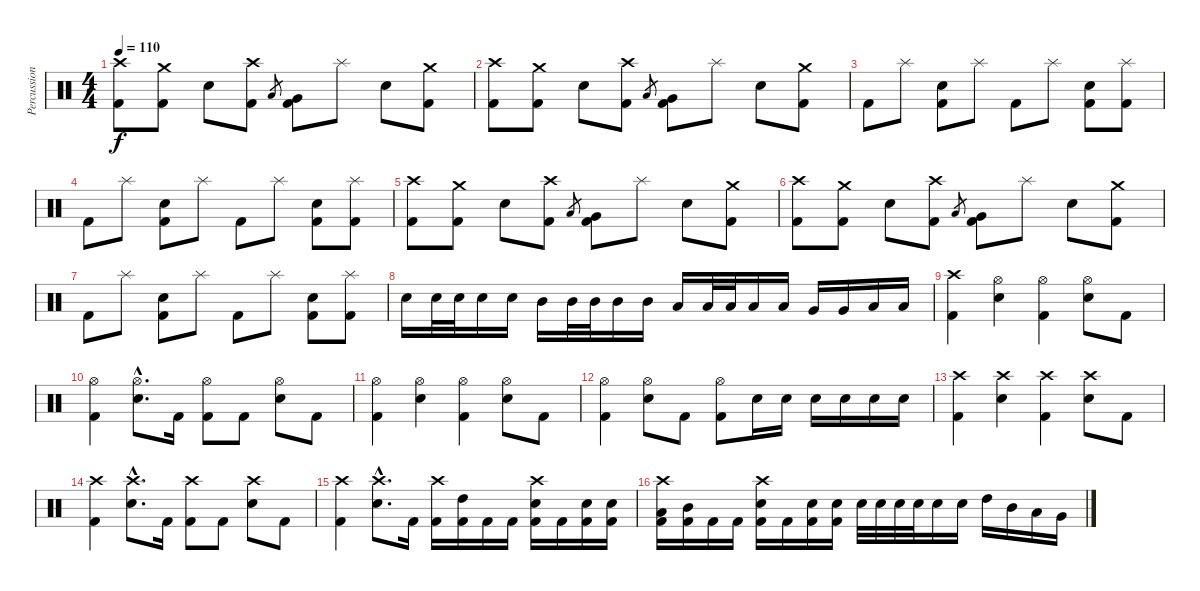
\track ("Percussion" "Percussion") {instrument percussion}
\staff {score}
\articulation defaults
\ts (4 4)
\tempo 110
\clef neutral
\ks c
("Crash high (hit)" "Kick (hit) 2").8{dy f} ("Crash medium (hit)" "Kick (hit) 2").8 "Electric Snare (hit)".8 ("Crash high (hit)" "Kick (hit) 2").8 "Low Tom (hit)".8{gr} ("Very Low Tom (hit)" "Kick (hit) 2").8 "Splash (hit)".8 "Electric Snare (hit)".8 ("Crash medium (hit)" "Kick (hit) 2").8 |
("Crash high (hit)" "Kick (hit) 2").8 ("Crash medium (hit)" "Kick (hit) 2").8 "Electric Snare (hit)".8 ("Crash high (hit)" "Kick (hit) 2").8 "Low Tom (hit)".8{gr} ("Very Low Tom (hit)" "Kick (hit) 2").8 "Splash (hit)".8 "Electric Snare (hit)".8 ("Crash medium (hit)" "Kick (hit) 2").8 |
"Kick (hit) 2".8 "Splash (hit)".8 ("Electric Snare (hit)" "Kick (hit) 2").8 "Splash (hit)".8 "Kick (hit) 2".8 "Splash (hit)".8 ("Electric Snare (hit)" "Kick (hit) 2").8 ("Splash (hit)" "Kick (hit) 2").8 |
"Kick (hit) 2".8 "Splash (hit)".8 ("Electric Snare (hit)" "Kick (hit) 2").8 "Splash (hit)".8 "Kick (hit) 2".8 "Splash (hit)".8 ("Electric Snare (hit)" "Kick (hit) 2").8 ("Splash (hit)" "Kick (hit) 2").8 |
("Crash high (hit)" "Kick (hit) 2").8 ("Crash medium (hit)" "Kick (hit) 2").8 "Electric Snare (hit)".8 ("Crash high (hit)" "Kick (hit) 2").8 "Low Tom (hit)".8{gr} ("Very Low Tom (hit)" "Kick (hit) 2").8 "Splash (hit)".8 "Electric Snare (hit)".8 ("Crash medium (hit)" "Kick (hit) 2").8 |
("Crash high (hit)" "Kick (hit) 2").8 ("Crash medium (hit)" "Kick (hit) 2").8 "Electric Snare (hit)".8 ("Crash high (hit)" "Kick (hit) 2").8 "Low Tom (hit)".8{gr} ("Very Low Tom (hit)" "Kick (hit) 2").8 "Splash (hit)".8 "Electric Snare (hit)".8 ("Crash medium (hit)" "Kick (hit) 2").8 |
"Kick (hit) 2".8 "Splash (hit)".8 ("Electric Snare (hit)" "Kick (hit) 2").8 "Splash (hit)".8 "Kick (hit) 2".8 "Splash (hit)".8 ("Electric Snare (hit)" "Kick (hit) 2").8 ("Splash (hit)" "Kick (hit) 2").8 |
"Electric Snare (hit)".16 "Electric Snare (hit)".32 "Electric Snare (hit)".32 "Electric Snare (hit)".16 "Electric Snare (hit)".16 "Mid Tom (hit)".16 "Mid Tom (hit)".32 "Mid Tom (hit)".32 "Mid Tom (hit)".16 "Mid Tom (hit)".16 "Low Tom (hit)".16 "Low Tom (hit)".32 "Low Tom (hit)".32 "Low Tom (hit)".16 "Low Tom (hit)".16 "Very Low Tom (hit)".16 "Very Low Tom (hit)".16 "Low Floor Tom (hit)".16 "Low Floor Tom (hit)".16 |
("Crash high (hit)" "Kick (hit) 2").4 ("Hi-Hat (open)" "Electric Snare (hit)").4 ("Hi-Hat (open)" "Kick (hit) 2").4 ("Hi-Hat (open)" "Electric Snare (hit)").8 "Kick (hit) 2".8 |
("Hi-Hat (open)" "Kick (hit) 2").4 ("Hi-Hat (open)"{hac} "Electric Snare (hit)"{hac}).8{d} "Kick (hit) 2".16 ("Hi-Hat (open)" "Kick (hit) 2").8 "Kick (hit) 2".8 ("Hi-Hat (open)" "Electric Snare (hit)").8 "Kick (hit) 2".8 |
("Hi-Hat (open)" "Kick (hit) 2").4 ("Hi-Hat (open)" "Electric Snare (hit)").4 ("Hi-Hat (open)" "Kick (hit) 2").4 ("Hi-Hat (open)" "Electric Snare (hit)").8 "Kick (hit) 2".8 |
("Hi-Hat (open)" "Kick (hit) 2").4 ("Hi-Hat (open)" "Electric Snare (hit)").8 "Kick (hit) 2".8 ("Hi-Hat (open)" "Kick (hit) 2").8 "Electric Snare (hit)".16 "Electric Snare (hit)".16 "Electric Snare (hit)".16 "Electric Snare (hit)".16 "Electric Snare (hit)".16 "Electric Snare (hit)".16 |
("Crash high (hit)" "Kick (hit) 2").4 ("Crash high (hit)" "Electric Snare (hit)").4 ("Crash high (hit)" "Kick (hit) 2").4 ("Crash high (hit)" "Electric Snare (hit)").8 "Kick (hit) 2".8 |
("Crash high (hit)" "Kick (hit) 2").4 ("Crash high (hit)"{hac} "Electric Snare (hit)"{hac}).8{d} "Kick (hit) 2".16 ("Crash high (hit)" "Kick (hit) 2").8 "Kick (hit) 2".8 ("Crash high (hit)" "Electric Snare (hit)").8 "Kick (hit) 2".8 |
("Crash high (hit)" "Kick (hit) 2").4 ("Crash high (hit)"{hac} "Electric Snare (hit)"{hac}).8{d} "Kick (hit) 2".16 ("Crash high (hit)" "Kick (hit) 2").16 ("High Tom (hit)" "Kick (hit) 2").16 "Kick (hit) 2".16 "Kick (hit) 2".16 ("Crash high (hit)" "Electric Snare (hit)" "Kick (hit) 2").16 "Kick (hit) 2".16 ("Electric Snare (hit)" "Kick (hit) 2").16 ("Electric Snare (hit)" "Kick (hit) 2").16 |
("Crash high (hit)" "Low Tom (hit)" "Kick (hit) 2").16 ("Mid Tom (hit)" "Kick (hit) 2").16 "Kick (hit) 2".16 "Kick (hit) 2".16 ("Crash high (hit)" "Electric Snare (hit)" "Kick (hit) 2").16 "Kick (hit) 2".16 ("Electric Snare (hit)" "Kick (hit) 2").16 ("Electric Snare (hit)" "Kick (hit) 2").16 "Electric Snare (hit)".32 "Electric Snare (hit)".32 "Electric Snare (hit)".32 "Electric Snare (hit)".32 "Electric Snare (hit)".16 "Electric Snare (hit)".16 "High Tom (hit)".16 "Mid Tom (hit)".16 "Low Tom (hit)".16 "Very Low Tom (hit)".16
